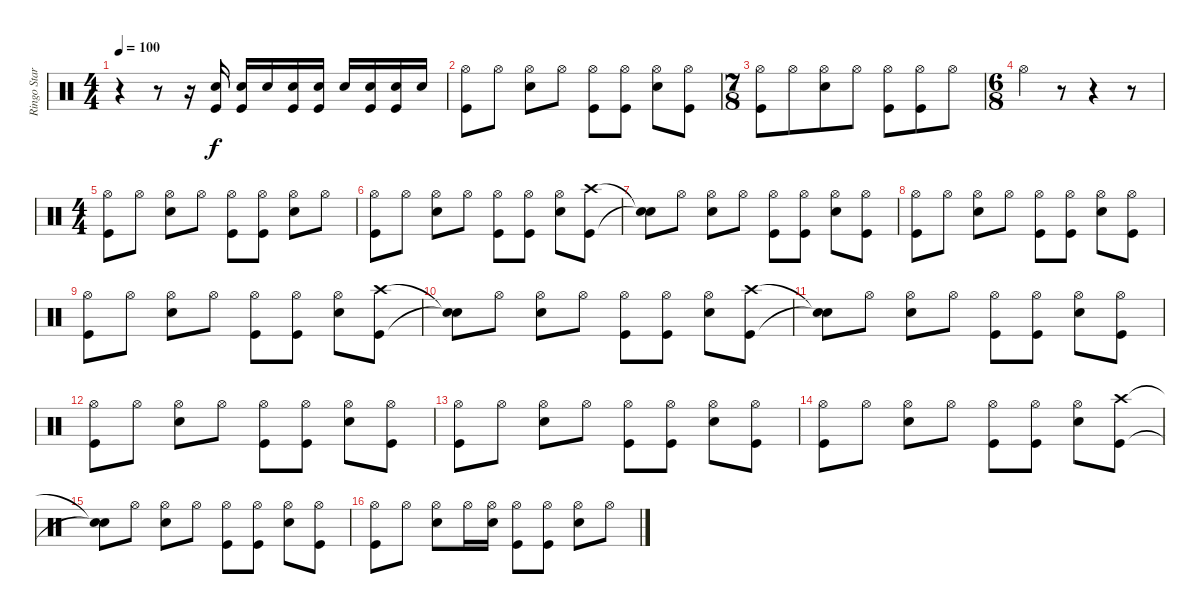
\track ("Ringo Starr" "Ringo Star") {instrument percussion}
\staff {score}
\articulation defaults
\ts (4 4)
\tempo 100
\clef neutral
\ks c
r.4{dy f} r.8 r.16 ("Snare (hit) 2" "Kick (hit)").16 ("Snare (hit) 2" "Kick (hit)").16 "Snare (hit) 2".16 ("Snare (hit) 2" "Kick (hit)").16 ("Snare (hit) 2" "Kick (hit)").16 "Snare (hit) 2".16 ("Snare (hit) 2" "Kick (hit)").16 ("Snare (hit) 2" "Kick (hit)").16 "Snare (hit) 2".16 |
("Hi-Hat (open)" "Kick (hit)").8 "Hi-Hat (open)".8 ("Hi-Hat (open)" "Snare (hit) 2").8 "Hi-Hat (open)".8 ("Hi-Hat (open)" "Kick (hit)").8 ("Hi-Hat (open)" "Kick (hit)").8 ("Hi-Hat (open)" "Snare (hit) 2").8 ("Hi-Hat (open)" "Kick (hit)").8 |
\ts (7 8)
("Hi-Hat (open)" "Kick (hit)").8 "Hi-Hat (open)".8 ("Hi-Hat (open)" "Snare (hit) 2").8 "Hi-Hat (open)".8 ("Hi-Hat (open)" "Kick (hit)").8 ("Hi-Hat (open)" "Kick (hit)").8 "Hi-Hat (open)".8 |
\ts (6 8)
"Hi-Hat (open)".4 r.8 r.4 r.8 |
\ts (4 4)
("Hi-Hat (open)" "Kick (hit)").8 "Hi-Hat (open)".8 ("Hi-Hat (open)" "Snare (hit) 2").8 "Hi-Hat (open)".8 ("Hi-Hat (open)" "Kick (hit)").8 ("Hi-Hat (open)" "Kick (hit)").8 ("Hi-Hat (open)" "Snare (hit) 2").8 "Hi-Hat (open)".8 |
("Hi-Hat (open)" "Kick (hit)").8 "Hi-Hat (open)".8 ("Hi-Hat (open)" "Snare (hit) 2").8 "Hi-Hat (open)".8 ("Hi-Hat (open)" "Kick (hit)").8 ("Hi-Hat (open)" "Kick (hit)").8 ("Hi-Hat (open)" "Snare (hit) 2").8 ("Crash high (hit)" "Kick (hit)").8 |
("Snare (hit)"{t} "Snare (hit)"{t}).8 "Hi-Hat (open)".8 ("Hi-Hat (open)" "Snare (hit) 2").8 "Hi-Hat (open)".8 ("Hi-Hat (open)" "Kick (hit)").8 ("Hi-Hat (open)" "Kick (hit)").8 ("Hi-Hat (open)" "Snare (hit) 2").8 ("Hi-Hat (open)" "Kick (hit)").8 |
("Hi-Hat (open)" "Kick (hit)").8 "Hi-Hat (open)".8 ("Hi-Hat (open)" "Snare (hit) 2").8 "Hi-Hat (open)".8 ("Hi-Hat (open)" "Kick (hit)").8 ("Hi-Hat (open)" "Kick (hit)").8 ("Hi-Hat (open)" "Snare (hit) 2").8 ("Hi-Hat (open)" "Kick (hit)").8 |
("Hi-Hat (open)" "Kick (hit)").8 "Hi-Hat (open)".8 ("Hi-Hat (open)" "Snare (hit) 2").8 "Hi-Hat (open)".8 ("Hi-Hat (open)" "Kick (hit)").8 ("Hi-Hat (open)" "Kick (hit)").8 ("Hi-Hat (open)" "Snare (hit) 2").8 ("Crash high (hit)" "Kick (hit)").8 |
("Snare (hit)"{t} "Snare (hit)"{t}).8 "Hi-Hat (open)".8 ("Hi-Hat (open)" "Snare (hit) 2").8 "Hi-Hat (open)".8 ("Hi-Hat (open)" "Kick (hit)").8 ("Hi-Hat (open)" "Kick (hit)").8 ("Hi-Hat (open)" "Snare (hit) 2").8 ("Crash high (hit)" "Kick (hit)").8 |
("Snare (hit)"{t} "Snare (hit)"{t}).8 "Hi-Hat (open)".8 ("Hi-Hat (open)" "Snare (hit) 2").8 "Hi-Hat (open)".8 ("Hi-Hat (open)" "Kick (hit)").8 ("Hi-Hat (open)" "Kick (hit)").8 ("Hi-Hat (open)" "Snare (hit) 2").8 ("Hi-Hat (open)" "Kick (hit)").8 |
("Hi-Hat (open)" "Kick (hit)").8 "Hi-Hat (open)".8 ("Hi-Hat (open)" "Snare (hit) 2").8 "Hi-Hat (open)".8 ("Hi-Hat (open)" "Kick (hit)").8 ("Hi-Hat (open)" "Kick (hit)").8 ("Hi-Hat (open)" "Snare (hit) 2").8 ("Hi-Hat (open)" "Kick (hit)").8 |
("Hi-Hat (open)" "Kick (hit)").8 "Hi-Hat (open)".8 ("Hi-Hat (open)" "Snare (hit) 2").8 "Hi-Hat (open)".8 ("Hi-Hat (open)" "Kick (hit)").8 ("Hi-Hat (open)" "Kick (hit)").8 ("Hi-Hat (open)" "Snare (hit) 2").8 ("Hi-Hat (open)" "Kick (hit)").8 |
("Hi-Hat (open)" "Kick (hit)").8 "Hi-Hat (open)".8 ("Hi-Hat (open)" "Snare (hit) 2").8 "Hi-Hat (open)".8 ("Hi-Hat (open)" "Kick (hit)").8 ("Hi-Hat (open)" "Kick (hit)").8 ("Hi-Hat (open)" "Snare (hit) 2").8 ("Crash high (hit)" "Kick (hit)").8 |
("Snare (hit)"{t} "Snare (hit)"{t}).8 "Hi-Hat (open)".8 ("Hi-Hat (open)" "Snare (hit) 2").8 "Hi-Hat (open)".8 ("Hi-Hat (open)" "Kick (hit)").8 ("Hi-Hat (open)" "Kick (hit)").8 ("Hi-Hat (open)" "Snare (hit) 2").8 ("Hi-Hat (open)" "Kick (hit)").8 |
("Hi-Hat (open)" "Kick (hit)").8 "Hi-Hat (open)".8 ("Hi-Hat (open)" "Snare (hit) 2").8 "Hi-Hat (open)".16 ("Hi-Hat (open)" "Snare (hit) 2").16 ("Hi-Hat (open)" "Kick (hit)").8 ("Hi-Hat (open)" "Kick (hit)").8 ("Hi-Hat (open)" "Snare (hit) 2").8 "Hi-Hat (open)".8
